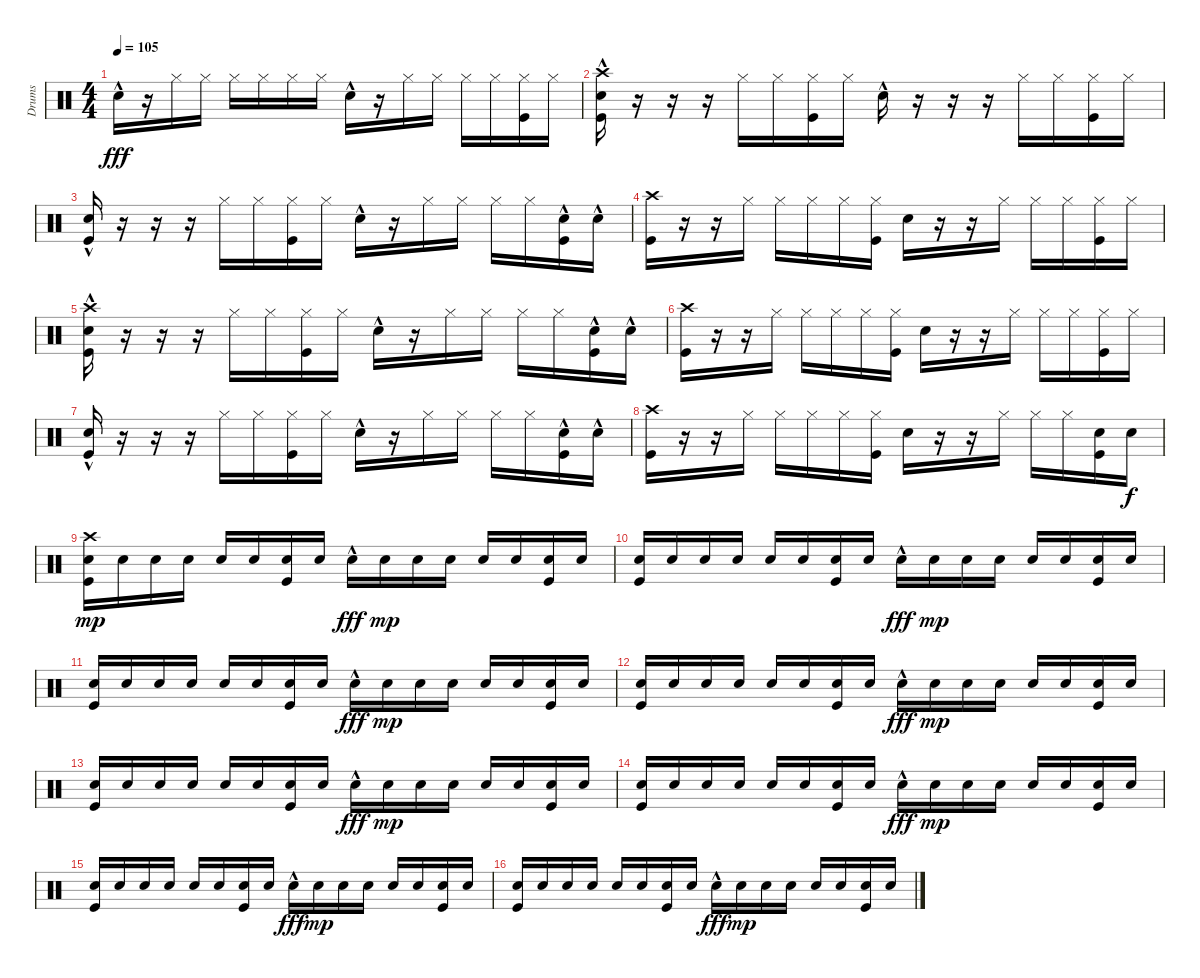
\track ("Drums" "Drums") {instrument percussion}
\staff {score}
\articulation defaults
\ts (4 4)
\tempo 105
\clef neutral
\ks c "Snare (hit) 2"{hac}.16{dy fff}
r.16 "Hi-Hat (closed)".16 "Hi-Hat (closed)".16 "Hi-Hat (closed)".16 "Hi-Hat (closed)".16 "Hi-Hat (closed)".16 "Hi-Hat (closed)".16 "Snare (hit) 2"{hac}.16 r.16 "Hi-Hat (closed)".16 "Hi-Hat (closed)".16 "Hi-Hat (closed)".16 "Hi-Hat (closed)".16 ("Hi-Hat (closed)" "Kick (hit)").16 "Hi-Hat (closed)".16 |
("Crash high (hit)" "Snare (hit) 2"{hac} "Kick (hit)").16 r.16 r.16 r.16 "Hi-Hat (closed)".16 "Hi-Hat (closed)".16 ("Hi-Hat (closed)" "Kick (hit)").16 "Hi-Hat (closed)".16 "Snare (hit) 2"{hac}.16 r.16 r.16 r.16 "Hi-Hat (closed)".16 "Hi-Hat (closed)".16 ("Hi-Hat (closed)" "Kick (hit)").16 "Hi-Hat (closed)".16 |
("Snare (hit) 2"{hac} "Kick (hit)").16 r.16 r.16 r.16 "Hi-Hat (closed)".16 "Hi-Hat (closed)".16 ("Hi-Hat (closed)" "Kick (hit)").16 "Hi-Hat (closed)".16 "Snare (hit) 2"{hac}.16 r.16 "Hi-Hat (closed)".16 "Hi-Hat (closed)".16 "Hi-Hat (closed)".16 "Hi-Hat (closed)".16 ("Snare (hit) 2"{hac} "Kick (hit)").16 "Snare (hit) 2"{hac}.16 |
("Crash high (hit)" "Kick (hit)").16 r.16 r.16 "Hi-Hat (closed)".16 "Hi-Hat (closed)".16 "Hi-Hat (closed)".16 "Hi-Hat (closed)".16 ("Hi-Hat (closed)" "Kick (hit)").16 "Snare (hit) 2".16 r.16 r.16 "Hi-Hat (closed)".16 "Hi-Hat (closed)".16 "Hi-Hat (closed)".16 ("Hi-Hat (closed)" "Kick (hit)").16 "Hi-Hat (closed)".16 |
("Crash high (hit)" "Snare (hit) 2"{hac} "Kick (hit)").16 r.16 r.16 r.16 "Hi-Hat (closed)".16 "Hi-Hat (closed)".16 ("Hi-Hat (closed)" "Kick (hit)").16 "Hi-Hat (closed)".16 "Snare (hit) 2"{hac}.16 r.16 "Hi-Hat (closed)".16 "Hi-Hat (closed)".16 "Hi-Hat (closed)".16 "Hi-Hat (closed)".16 ("Snare (hit) 2"{hac} "Kick (hit)").16 "Snare (hit) 2"{hac}.16 |
("Crash high (hit)" "Kick (hit)").16 r.16 r.16 "Hi-Hat (closed)".16 "Hi-Hat (closed)".16 "Hi-Hat (closed)".16 "Hi-Hat (closed)".16 ("Hi-Hat (closed)" "Kick (hit)").16 "Snare (hit) 2".16 r.16 r.16 "Hi-Hat (closed)".16 "Hi-Hat (closed)".16 "Hi-Hat (closed)".16 ("Hi-Hat (closed)" "Kick (hit)").16 "Hi-Hat (closed)".16 |
("Snare (hit) 2"{hac} "Kick (hit)").16 r.16 r.16 r.16 "Hi-Hat (closed)".16 "Hi-Hat (closed)".16 ("Hi-Hat (closed)" "Kick (hit)").16 "Hi-Hat (closed)".16 "Snare (hit) 2"{hac}.16 r.16 "Hi-Hat (closed)".16 "Hi-Hat (closed)".16 "Hi-Hat (closed)".16 "Hi-Hat (closed)".16 ("Snare (hit) 2"{hac} "Kick (hit)").16 "Snare (hit) 2"{hac}.16 |
("Crash high (hit)" "Kick (hit)").16 r.16 r.16 "Hi-Hat (closed)".16 "Hi-Hat (closed)".16 "Hi-Hat (closed)".16 "Hi-Hat (closed)".16 ("Hi-Hat (closed)" "Kick (hit)").16 "Snare (hit) 2".16 r.16 r.16 "Hi-Hat (closed)".16 "Hi-Hat (closed)".16 "Hi-Hat (closed)".16 ("Snare (hit) 2" "Kick (hit)").16 "Snare (hit) 2".16{dy f} |
("Crash high (hit)" "Snare (hit) 2" "Kick (hit)").16{dy mp} "Snare (hit) 2".16 "Snare (hit) 2".16 "Snare (hit) 2".16 "Snare (hit) 2".16 "Snare (hit) 2".16 ("Snare (hit) 2" "Kick (hit)").16 "Snare (hit) 2".16 "Snare (hit) 2"{hac}.16{dy fff} "Snare (hit) 2".16{dy mp} "Snare (hit) 2".16 "Snare (hit) 2".16 "Snare (hit) 2".16 "Snare (hit) 2".16 ("Snare (hit) 2" "Kick (hit)").16 "Snare (hit) 2".16 |
("Snare (hit) 2" "Kick (hit)").16 "Snare (hit) 2".16 "Snare (hit) 2".16 "Snare (hit) 2".16 "Snare (hit) 2".16 "Snare (hit) 2".16 ("Snare (hit) 2" "Kick (hit)").16 "Snare (hit) 2".16 "Snare (hit) 2"{hac}.16{dy fff} "Snare (hit) 2".16{dy mp} "Snare (hit) 2".16 "Snare (hit) 2".16 "Snare (hit) 2".16 "Snare (hit) 2".16 ("Snare (hit) 2" "Kick (hit)").16 "Snare (hit) 2".16 |
("Snare (hit) 2" "Kick (hit)").16 "Snare (hit) 2".16 "Snare (hit) 2".16 "Snare (hit) 2".16 "Snare (hit) 2".16 "Snare (hit) 2".16 ("Snare (hit) 2" "Kick (hit)").16 "Snare (hit) 2".16 "Snare (hit) 2"{hac}.16{dy fff} "Snare (hit) 2".16{dy mp} "Snare (hit) 2".16 "Snare (hit) 2".16 "Snare (hit) 2".16 "Snare (hit) 2".16 ("Snare (hit) 2" "Kick (hit)").16 "Snare (hit) 2".16 |
("Snare (hit) 2" "Kick (hit)").16 "Snare (hit) 2".16 "Snare (hit) 2".16 "Snare (hit) 2".16 "Snare (hit) 2".16 "Snare (hit) 2".16 ("Snare (hit) 2" "Kick (hit)").16 "Snare (hit) 2".16 "Snare (hit) 2"{hac}.16{dy fff} "Snare (hit) 2".16{dy mp} "Snare (hit) 2".16 "Snare (hit) 2".16 "Snare (hit) 2".16 "Snare (hit) 2".16 ("Snare (hit) 2" "Kick (hit)").16 "Snare (hit) 2".16 |
("Snare (hit) 2" "Kick (hit)").16 "Snare (hit) 2".16 "Snare (hit) 2".16 "Snare (hit) 2".16 "Snare (hit) 2".16 "Snare (hit) 2".16 ("Snare (hit) 2" "Kick (hit)").16 "Snare (hit) 2".16 "Snare (hit) 2"{hac}.16{dy fff} "Snare (hit) 2".16{dy mp} "Snare (hit) 2".16 "Snare (hit) 2".16 "Snare (hit) 2".16 "Snare (hit) 2".16 ("Snare (hit) 2" "Kick (hit)").16 "Snare (hit) 2".16 |
("Snare (hit) 2" "Kick (hit)").16 "Snare (hit) 2".16 "Snare (hit) 2".16 "Snare (hit) 2".16 "Snare (hit) 2".16 "Snare (hit) 2".16 ("Snare (hit) 2" "Kick (hit)").16 "Snare (hit) 2".16 "Snare (hit) 2"{hac}.16{dy fff} "Snare (hit) 2".16{dy mp} "Snare (hit) 2".16 "Snare (hit) 2".16 "Snare (hit) 2".16 "Snare (hit) 2".16 ("Snare (hit) 2" "Kick (hit)").16 "Snare (hit) 2".16 |
("Snare (hit) 2" "Kick (hit)").16 "Snare (hit) 2".16 "Snare (hit) 2".16 "Snare (hit) 2".16 "Snare (hit) 2".16 "Snare (hit) 2".16 ("Snare (hit) 2" "Kick (hit)").16 "Snare (hit) 2".16 "Snare (hit) 2"{hac}.16{dy fff} "Snare (hit) 2".16{dy mp} "Snare (hit) 2".16 "Snare (hit) 2".16 "Snare (hit) 2".16 "Snare (hit) 2".16 ("Snare (hit) 2" "Kick (hit)").16 "Snare (hit) 2".16 |
("Snare (hit) 2" "Kick (hit)").16 "Snare (hit) 2".16 "Snare (hit) 2".16 "Snare (hit) 2".16 "Snare (hit) 2".16 "Snare (hit) 2".16 ("Snare (hit) 2" "Kick (hit)").16 "Snare (hit) 2".16 "Snare (hit) 2"{hac}.16{dy fff} "Snare (hit) 2".16{dy mp} "Snare (hit) 2".16 "Snare (hit) 2".16 "Snare (hit) 2".16 "Snare (hit) 2".16 ("Snare (hit) 2" "Kick (hit)").16 "Snare (hit) 2".16
